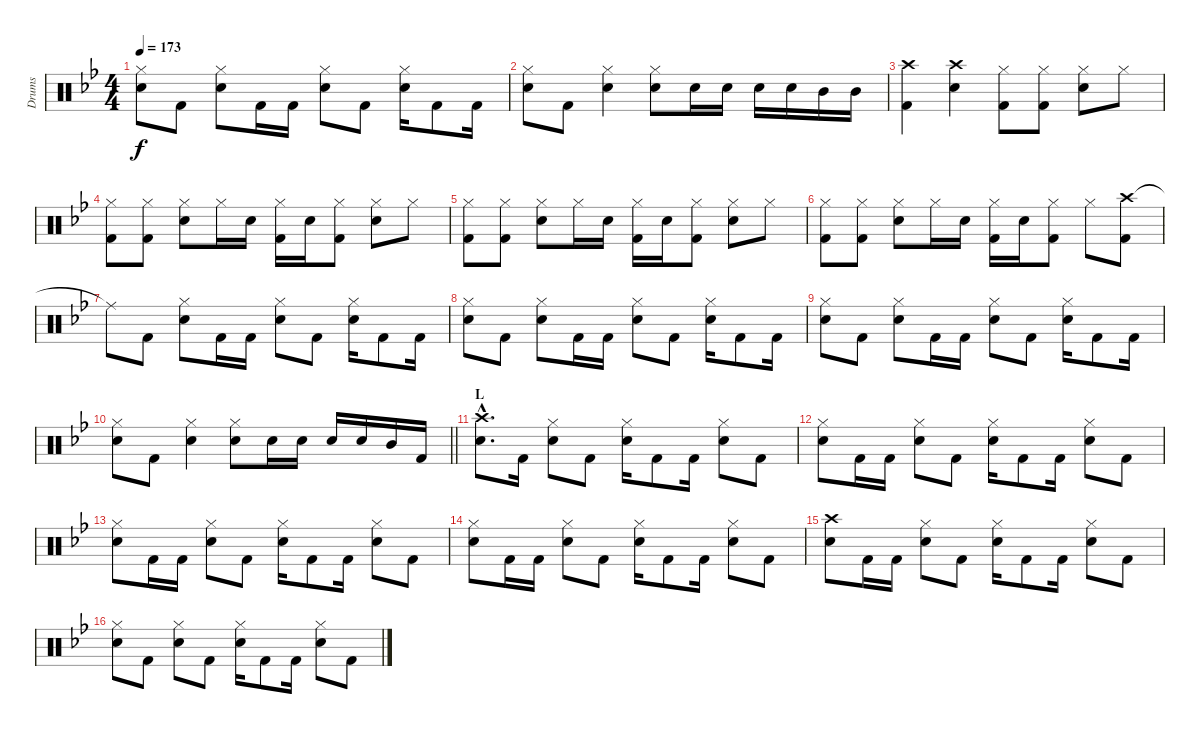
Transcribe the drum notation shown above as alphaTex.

\track ("Drums" "Drums") {instrument percussion}
\staff {score}
\articulation defaults
\ts (4 4)
\tempo 173
\clef neutral
\ks bb
("Hi-Hat (closed)" "Snare (hit) 2").8{dy f} "Kick (hit) 2".8 ("Hi-Hat (closed)" "Snare (hit) 2").8 "Kick (hit) 2".16 "Kick (hit) 2".16 ("Hi-Hat (closed)" "Snare (hit) 2").8 "Kick (hit) 2".8 ("Hi-Hat (closed)" "Snare (hit) 2").16 "Kick (hit) 2".8 "Kick (hit) 2".16 |
("Hi-Hat (closed)" "Snare (hit) 2").8 "Kick (hit) 2".8 ("Hi-Hat (closed)" "Snare (hit) 2").4 ("Hi-Hat (closed)" "Snare (hit) 2").8 "Snare (hit) 2".16 "Snare (hit) 2".16 "Snare (hit) 2".16 "Snare (hit) 2".16 "Mid Tom (hit)".16 "Mid Tom (hit)".16 |
("Crash high (hit)" "Kick (hit) 2").4 ("Crash high (hit)" "Snare (hit) 2").4 ("Hi-Hat (closed)" "Kick (hit) 2").8 ("Hi-Hat (closed)" "Kick (hit) 2").8 ("Hi-Hat (closed)" "Snare (hit) 2").8 "Hi-Hat (closed)".8 |
("Hi-Hat (closed)" "Kick (hit) 2").8 ("Hi-Hat (closed)" "Kick (hit) 2").8 ("Hi-Hat (closed)" "Snare (hit) 2").8 "Hi-Hat (closed)".16 "Snare (hit) 2".16 ("Hi-Hat (closed)" "Kick (hit) 2").16 "Snare (hit) 2".16 ("Hi-Hat (closed)" "Kick (hit) 2").8 ("Hi-Hat (closed)" "Snare (hit) 2").8 "Hi-Hat (closed)".8 |
("Hi-Hat (closed)" "Kick (hit) 2").8 ("Hi-Hat (closed)" "Kick (hit) 2").8 ("Hi-Hat (closed)" "Snare (hit) 2").8 "Hi-Hat (closed)".16 "Snare (hit) 2".16 ("Hi-Hat (closed)" "Kick (hit) 2").16 "Snare (hit) 2".16 ("Hi-Hat (closed)" "Kick (hit) 2").8 ("Hi-Hat (closed)" "Snare (hit) 2").8 "Hi-Hat (closed)".8 |
("Hi-Hat (closed)" "Kick (hit) 2").8 ("Hi-Hat (closed)" "Kick (hit) 2").8 ("Hi-Hat (closed)" "Snare (hit) 2").8 "Hi-Hat (closed)".16 "Snare (hit) 2".16 ("Hi-Hat (closed)" "Kick (hit) 2").16 "Snare (hit) 2".16 ("Hi-Hat (closed)" "Kick (hit) 2").8 "Hi-Hat (closed)".8 ("Crash high (hit)" "Kick (hit) 2").8 |
"Ride (middle)"{t}.8 "Kick (hit) 2".8 ("Hi-Hat (closed)" "Snare (hit) 2").8 "Kick (hit) 2".16 "Kick (hit) 2".16 ("Hi-Hat (closed)" "Snare (hit) 2").8 "Kick (hit) 2".8 ("Hi-Hat (closed)" "Snare (hit) 2").16 "Kick (hit) 2".8 "Kick (hit) 2".16 |
("Hi-Hat (closed)" "Snare (hit) 2").8 "Kick (hit) 2".8 ("Hi-Hat (closed)" "Snare (hit) 2").8 "Kick (hit) 2".16 "Kick (hit) 2".16 ("Hi-Hat (closed)" "Snare (hit) 2").8 "Kick (hit) 2".8 ("Hi-Hat (closed)" "Snare (hit) 2").16 "Kick (hit) 2".8 "Kick (hit) 2".16 |
("Hi-Hat (closed)" "Snare (hit) 2").8 "Kick (hit) 2".8 ("Hi-Hat (closed)" "Snare (hit) 2").8 "Kick (hit) 2".16 "Kick (hit) 2".16 ("Hi-Hat (closed)" "Snare (hit) 2").8 "Kick (hit) 2".8 ("Hi-Hat (closed)" "Snare (hit) 2").16 "Kick (hit) 2".8 "Kick (hit) 2".16 |
\barLineRight lightlight
("Hi-Hat (closed)" "Snare (hit) 2").8 "Kick (hit) 2".8 ("Hi-Hat (closed)" "Snare (hit) 2").4 ("Hi-Hat (closed)" "Snare (hit) 2").8 "Snare (hit) 2".16 "Snare (hit) 2".16 "Snare (hit) 2".16 "Snare (hit) 2".16 "Mid Tom (hit)".16 "Kick (hit) 2".16 |
\section ("" "L")
("Crash high (hit)"{hac} "Snare (hit) 2"{hac}).8{d} "Kick (hit) 2".16 ("Hi-Hat (closed)" "Snare (hit) 2").8 "Kick (hit) 2".8 ("Hi-Hat (closed)" "Snare (hit) 2").16 "Kick (hit) 2".8 "Kick (hit) 2".16 ("Hi-Hat (closed)" "Snare (hit) 2").8 "Kick (hit) 2".8 |
("Hi-Hat (closed)" "Snare (hit) 2").8 "Kick (hit) 2".16 "Kick (hit) 2".16 ("Hi-Hat (closed)" "Snare (hit) 2").8 "Kick (hit) 2".8 ("Hi-Hat (closed)" "Snare (hit) 2").16 "Kick (hit) 2".8 "Kick (hit) 2".16 ("Hi-Hat (closed)" "Snare (hit) 2").8 "Kick (hit) 2".8 |
("Hi-Hat (closed)" "Snare (hit) 2").8 "Kick (hit) 2".16 "Kick (hit) 2".16 ("Hi-Hat (closed)" "Snare (hit) 2").8 "Kick (hit) 2".8 ("Hi-Hat (closed)" "Snare (hit) 2").16 "Kick (hit) 2".8 "Kick (hit) 2".16 ("Hi-Hat (closed)" "Snare (hit) 2").8 "Kick (hit) 2".8 |
("Hi-Hat (closed)" "Snare (hit) 2").8 "Kick (hit) 2".16 "Kick (hit) 2".16 ("Hi-Hat (closed)" "Snare (hit) 2").8 "Kick (hit) 2".8 ("Hi-Hat (closed)" "Snare (hit) 2").16 "Kick (hit) 2".8 "Kick (hit) 2".16 ("Hi-Hat (closed)" "Snare (hit) 2").8 "Kick (hit) 2".8 |
("Crash high (hit)" "Snare (hit) 2").8 "Kick (hit) 2".16 "Kick (hit) 2".16 ("Hi-Hat (closed)" "Snare (hit) 2").8 "Kick (hit) 2".8 ("Hi-Hat (closed)" "Snare (hit) 2").16 "Kick (hit) 2".8 "Kick (hit) 2".16 ("Hi-Hat (closed)" "Snare (hit) 2").8 "Kick (hit) 2".8 |
("Hi-Hat (closed)" "Snare (hit) 2").8 "Kick (hit) 2".8 ("Hi-Hat (closed)" "Snare (hit) 2").8 "Kick (hit) 2".8 ("Hi-Hat (closed)" "Snare (hit) 2").16 "Kick (hit) 2".8 "Kick (hit) 2".16 ("Hi-Hat (closed)" "Snare (hit) 2").8 "Kick (hit) 2".8
